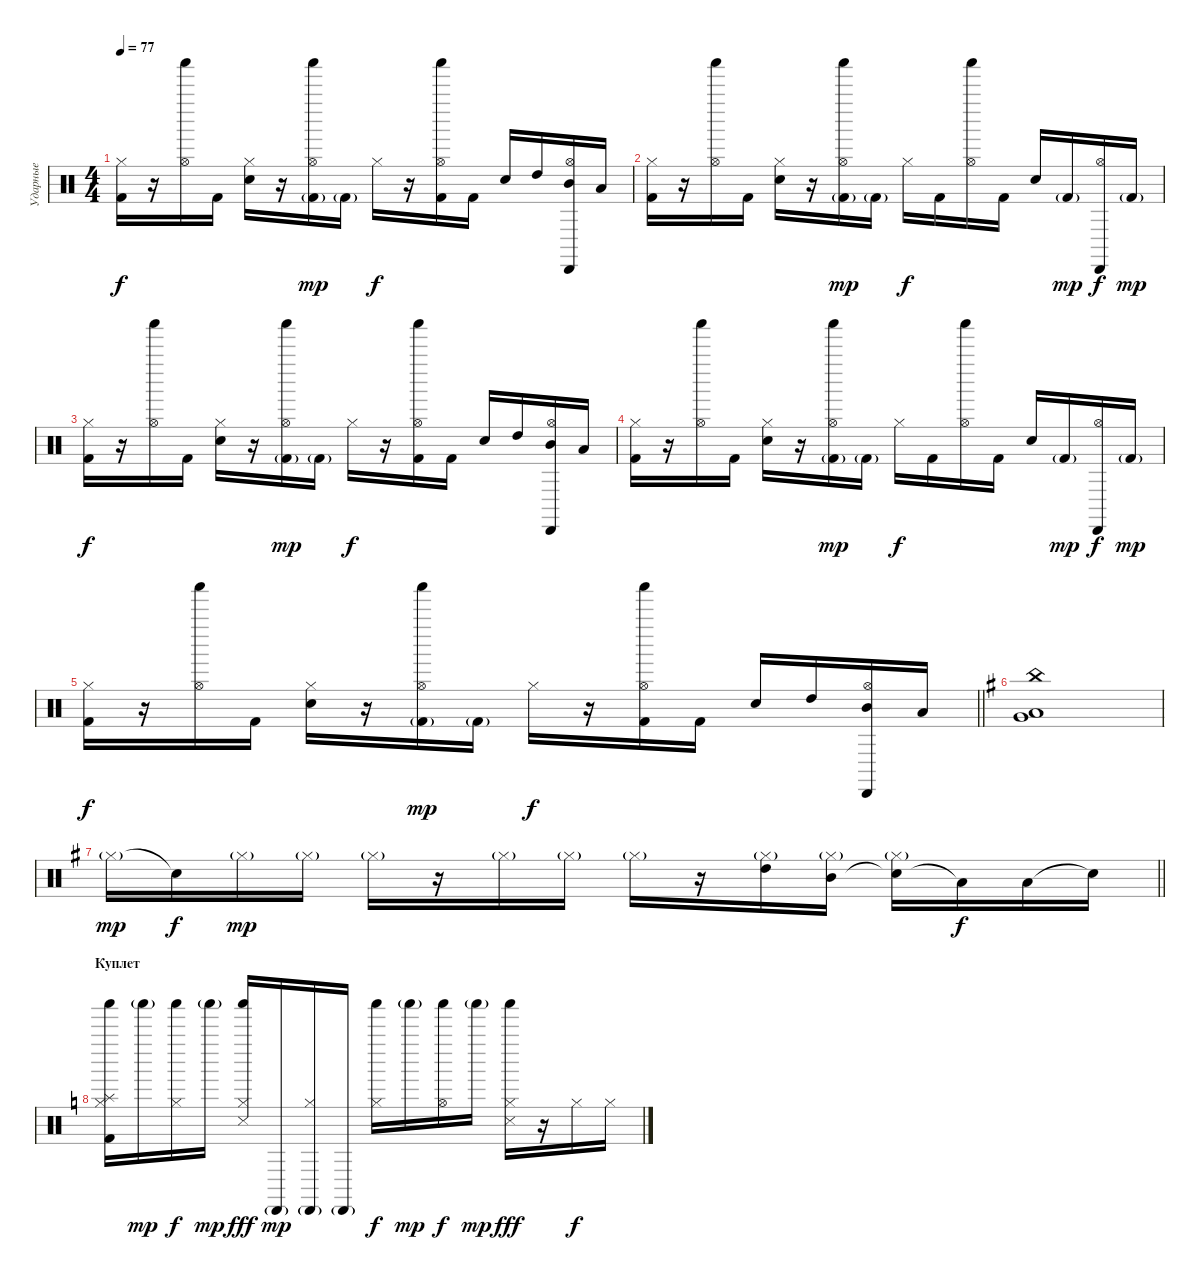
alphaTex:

\track ("Ударные" "Ударные") {instrument percussion}
\staff {score}
\articulation defaults
\ts (4 4)
\tempo 77
\clef neutral
\ks c
("Kick (hit) 2" "Hi-Hat (closed)").16{dy f} r.16 ("Hi-Hat (open)" "Shaker (hit)").16 "Kick (hit) 2".16 ("Electric Snare (hit)" "Hi-Hat (closed)").16 r.16 ("Hi-Hat (open)" "Kick (hit) 2"{g} "Shaker (hit)").16{dy mp} "Kick (hit) 2"{g}.16 "Hi-Hat (closed)".16{dy f} r.16 ("Hi-Hat (open)" "Kick (hit) 2" "Shaker (hit)").16 "Kick (hit) 2".16 "Electric Snare (hit)".16 "High Tom (hit)".16 ("Hi-Hat (open)" "Mid Tom (hit)" "Cabasa (hit)").16 "Low Tom (hit)".16 |
("Kick (hit) 2" "Hi-Hat (closed)").16 r.16 ("Hi-Hat (open)" "Shaker (hit)").16 "Kick (hit) 2".16 ("Electric Snare (hit)" "Hi-Hat (closed)").16 r.16 ("Hi-Hat (open)" "Kick (hit) 2"{g} "Shaker (hit)").16{dy mp} "Kick (hit) 2"{g}.16 "Hi-Hat (closed)".16{dy f} "Kick (hit) 2".16 ("Hi-Hat (open)" "Shaker (hit)").16 "Kick (hit) 2".16 "Electric Snare (hit)".16 "Kick (hit) 2"{g}.16{dy mp} ("Hi-Hat (open)" "Cabasa (hit)").16{dy f} "Kick (hit) 2"{g}.16{dy mp} |
("Kick (hit) 2" "Hi-Hat (closed)").16{dy f} r.16 ("Hi-Hat (open)" "Shaker (hit)").16 "Kick (hit) 2".16 ("Electric Snare (hit)" "Hi-Hat (closed)").16 r.16 ("Hi-Hat (open)" "Kick (hit) 2"{g} "Shaker (hit)").16{dy mp} "Kick (hit) 2"{g}.16 "Hi-Hat (closed)".16{dy f} r.16 ("Hi-Hat (open)" "Kick (hit) 2" "Shaker (hit)").16 "Kick (hit) 2".16 "Electric Snare (hit)".16 "High Tom (hit)".16 ("Hi-Hat (open)" "Mid Tom (hit)" "Cabasa (hit)").16 "Low Tom (hit)".16 |
("Kick (hit) 2" "Hi-Hat (closed)").16 r.16 ("Hi-Hat (open)" "Shaker (hit)").16 "Kick (hit) 2".16 ("Electric Snare (hit)" "Hi-Hat (closed)").16 r.16 ("Hi-Hat (open)" "Kick (hit) 2"{g} "Shaker (hit)").16{dy mp} "Kick (hit) 2"{g}.16 "Hi-Hat (closed)".16{dy f} "Kick (hit) 2".16 ("Hi-Hat (open)" "Shaker (hit)").16 "Kick (hit) 2".16 "Electric Snare (hit)".16 "Kick (hit) 2"{g}.16{dy mp} ("Hi-Hat (open)" "Cabasa (hit)").16{dy f} "Kick (hit) 2"{g}.16{dy mp} |
\barLineRight lightlight
("Kick (hit) 2" "Hi-Hat (closed)").16{dy f} r.16 ("Hi-Hat (open)" "Shaker (hit)").16 "Kick (hit) 2".16 ("Electric Snare (hit)" "Hi-Hat (closed)").16 r.16 ("Hi-Hat (open)" "Kick (hit) 2"{g} "Shaker (hit)").16{dy mp} "Kick (hit) 2"{g}.16 "Hi-Hat (closed)".16{dy f} r.16 ("Hi-Hat (open)" "Kick (hit) 2" "Shaker (hit)").16 "Kick (hit) 2".16 "Electric Snare (hit)".16 "High Tom (hit)".16 ("Hi-Hat (open)" "Mid Tom (hit)" "Cabasa (hit)").16 "Low Tom (hit)".16 |
\section ("" "")
\ks eminor
("China (hit)" "Low Floor Tom (hit)" "Very Low Tom (hit)").1 |
\barLineRight lightlight "Hi-Hat (closed)"{g}.16{dy mp} "Snare (hit)"{t}.16{dy f} "Hi-Hat (closed)"{g}.16{dy mp} "Hi-Hat (closed)"{g}.16 "Hi-Hat (closed)"{g}.16
r.16 "Hi-Hat (closed)"{g}.16 "Hi-Hat (closed)"{g}.16 "Hi-Hat (closed)"{g}.16 r.16 ("High Tom (hit)" "Hi-Hat (closed)"{g}).16 ("Mid Tom (hit)" "Hi-Hat (closed)"{g}).16 ("Snare (hit)"{t} "Hi-Hat (closed)"{g}).16 "Low Tom (hit)"{t}.16{dy f} "Low Tom (hit)".16 "Snare (hit)"{t}.16 |
\section ("" "Куплет")
\ks c
("Splash (hit)" "Kick (hit) 2" "Shaker (hit)" "Hi-Hat (closed)").16 "Shaker (hit)"{g}.16{dy mp} ("Shaker (hit)" "Hi-Hat (closed)").16{dy f} "Shaker (hit)"{g}.16{dy mp} ("Snare (side stick) 3" "Shaker (hit)" "Hi-Hat (closed)").16{dy fff} "Cabasa (hit)"{g}.16{dy mp} ("Cabasa (hit)"{g} "Hi-Hat (closed)").16 "Cabasa (hit)"{g}.16 ("Shaker (hit)" "Hi-Hat (closed)").16{dy f} "Shaker (hit)"{g}.16{dy mp} ("Hi-Hat (open)" "Shaker (hit)").16{dy f} "Shaker (hit)"{g}.16{dy mp} ("Snare (side stick) 3" "Shaker (hit)" "Hi-Hat (closed)").16{dy fff} r.16 "Hi-Hat (closed)".16{dy f} "Hi-Hat (closed)".16
